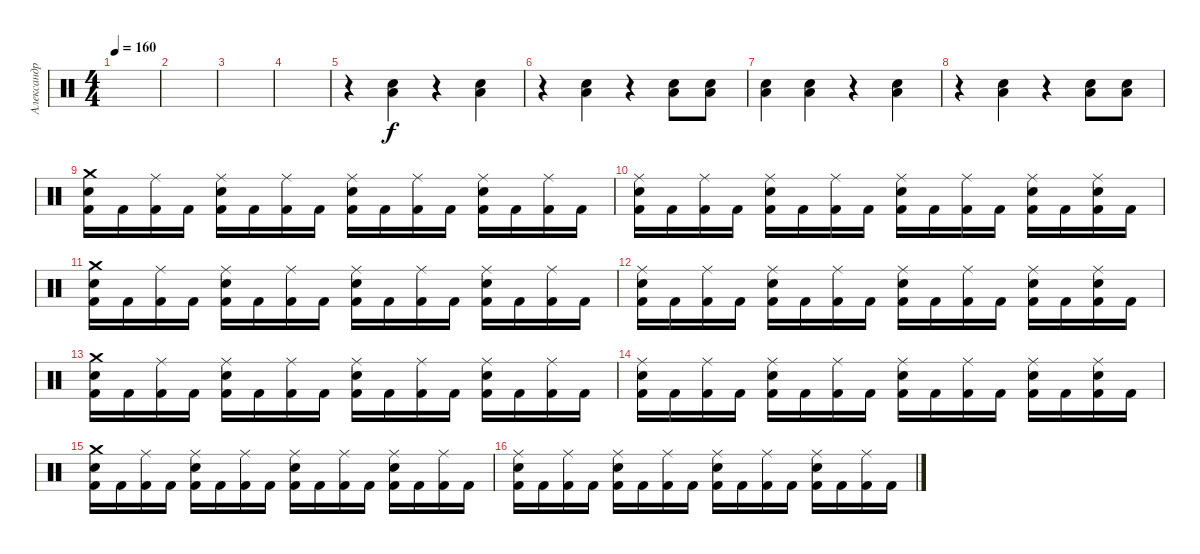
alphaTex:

\track ("Александр Карпухин" "Александр ") {instrument percussion}
\staff {score}
\articulation defaults
\ts (4 4)
\tempo 160
\clef neutral
\ks c
|
|
|
|
r.4 ("Low Floor Tom (hit)" "Electric Snare (hit)").4 r.4 ("Low Floor Tom (hit)" "Electric Snare (hit)").4 |
r.4 ("Low Floor Tom (hit)" "Electric Snare (hit)").4 r.4 ("Low Floor Tom (hit)" "Electric Snare (hit)").8 ("Low Floor Tom (hit)" "Electric Snare (hit)").8 |
("Low Floor Tom (hit)" "Electric Snare (hit)").4 ("Low Floor Tom (hit)" "Electric Snare (hit)").4 r.4 ("Low Floor Tom (hit)" "Electric Snare (hit)").4 |
r.4 ("Low Floor Tom (hit)" "Electric Snare (hit)").4 r.4 ("Low Floor Tom (hit)" "Electric Snare (hit)").8 ("Low Floor Tom (hit)" "Electric Snare (hit)").8 |
("Crash medium (hit)" "Electric Snare (hit)" "Kick (hit) 2").16 "Kick (hit) 2".16 ("Ride (middle)" "Kick (hit) 2").16 "Kick (hit) 2".16 ("Ride (middle)" "Electric Snare (hit)" "Kick (hit) 2").16 "Kick (hit) 2".16 ("Ride (middle)" "Kick (hit) 2").16 "Kick (hit) 2".16 ("Ride (middle)" "Electric Snare (hit)" "Kick (hit) 2").16 "Kick (hit) 2".16 ("Ride (middle)" "Kick (hit) 2").16 "Kick (hit) 2".16 ("Ride (middle)" "Electric Snare (hit)" "Kick (hit) 2").16 "Kick (hit) 2".16 ("Ride (middle)" "Kick (hit) 2").16 "Kick (hit) 2".16 |
("Ride (middle)" "Electric Snare (hit)" "Kick (hit) 2").16 "Kick (hit) 2".16 ("Ride (middle)" "Kick (hit) 2").16 "Kick (hit) 2".16 ("Ride (middle)" "Electric Snare (hit)" "Kick (hit) 2").16 "Kick (hit) 2".16 ("Ride (middle)" "Kick (hit) 2").16 "Kick (hit) 2".16 ("Ride (middle)" "Electric Snare (hit)" "Kick (hit) 2").16 "Kick (hit) 2".16 ("Ride (middle)" "Kick (hit) 2").16 "Kick (hit) 2".16 ("Ride (middle)" "Electric Snare (hit)" "Kick (hit) 2").16 "Kick (hit) 2".16 ("Ride (middle)" "Electric Snare (hit)" "Kick (hit) 2").16 "Kick (hit) 2".16 |
("Crash medium (hit)" "Electric Snare (hit)" "Kick (hit) 2").16 "Kick (hit) 2".16 ("Ride (middle)" "Kick (hit) 2").16 "Kick (hit) 2".16 ("Ride (middle)" "Electric Snare (hit)" "Kick (hit) 2").16 "Kick (hit) 2".16 ("Ride (middle)" "Kick (hit) 2").16 "Kick (hit) 2".16 ("Ride (middle)" "Electric Snare (hit)" "Kick (hit) 2").16 "Kick (hit) 2".16 ("Ride (middle)" "Kick (hit) 2").16 "Kick (hit) 2".16 ("Ride (middle)" "Electric Snare (hit)" "Kick (hit) 2").16 "Kick (hit) 2".16 ("Ride (middle)" "Kick (hit) 2").16 "Kick (hit) 2".16 |
("Ride (middle)" "Electric Snare (hit)" "Kick (hit) 2").16 "Kick (hit) 2".16 ("Ride (middle)" "Kick (hit) 2").16 "Kick (hit) 2".16 ("Ride (middle)" "Electric Snare (hit)" "Kick (hit) 2").16 "Kick (hit) 2".16 ("Ride (middle)" "Kick (hit) 2").16 "Kick (hit) 2".16 ("Ride (middle)" "Electric Snare (hit)" "Kick (hit) 2").16 "Kick (hit) 2".16 ("Ride (middle)" "Kick (hit) 2").16 "Kick (hit) 2".16 ("Ride (middle)" "Electric Snare (hit)" "Kick (hit) 2").16 "Kick (hit) 2".16 ("Ride (middle)" "Electric Snare (hit)" "Kick (hit) 2").16 "Kick (hit) 2".16 |
("Crash medium (hit)" "Electric Snare (hit)" "Kick (hit) 2").16 "Kick (hit) 2".16 ("Ride (middle)" "Kick (hit) 2").16 "Kick (hit) 2".16 ("Ride (middle)" "Electric Snare (hit)" "Kick (hit) 2").16 "Kick (hit) 2".16 ("Ride (middle)" "Kick (hit) 2").16 "Kick (hit) 2".16 ("Ride (middle)" "Electric Snare (hit)" "Kick (hit) 2").16 "Kick (hit) 2".16 ("Ride (middle)" "Kick (hit) 2").16 "Kick (hit) 2".16 ("Ride (middle)" "Electric Snare (hit)" "Kick (hit) 2").16 "Kick (hit) 2".16 ("Ride (middle)" "Kick (hit) 2").16 "Kick (hit) 2".16 |
("Ride (middle)" "Electric Snare (hit)" "Kick (hit) 2").16 "Kick (hit) 2".16 ("Ride (middle)" "Kick (hit) 2").16 "Kick (hit) 2".16 ("Ride (middle)" "Electric Snare (hit)" "Kick (hit) 2").16 "Kick (hit) 2".16 ("Ride (middle)" "Kick (hit) 2").16 "Kick (hit) 2".16 ("Ride (middle)" "Electric Snare (hit)" "Kick (hit) 2").16 "Kick (hit) 2".16 ("Ride (middle)" "Kick (hit) 2").16 "Kick (hit) 2".16 ("Ride (middle)" "Electric Snare (hit)" "Kick (hit) 2").16 "Kick (hit) 2".16 ("Ride (middle)" "Electric Snare (hit)" "Kick (hit) 2").16 "Kick (hit) 2".16 |
("Crash medium (hit)" "Electric Snare (hit)" "Kick (hit) 2").16 "Kick (hit) 2".16 ("Ride (middle)" "Kick (hit) 2").16 "Kick (hit) 2".16 ("Ride (middle)" "Electric Snare (hit)" "Kick (hit) 2").16 "Kick (hit) 2".16 ("Ride (middle)" "Kick (hit) 2").16 "Kick (hit) 2".16 ("Ride (middle)" "Electric Snare (hit)" "Kick (hit) 2").16 "Kick (hit) 2".16 ("Ride (middle)" "Kick (hit) 2").16 "Kick (hit) 2".16 ("Ride (middle)" "Electric Snare (hit)" "Kick (hit) 2").16 "Kick (hit) 2".16 ("Ride (middle)" "Kick (hit) 2").16 "Kick (hit) 2".16 |
("Ride (middle)" "Electric Snare (hit)" "Kick (hit) 2").16 "Kick (hit) 2".16 ("Ride (middle)" "Kick (hit) 2").16 "Kick (hit) 2".16 ("Ride (middle)" "Electric Snare (hit)" "Kick (hit) 2").16 "Kick (hit) 2".16 ("Ride (middle)" "Kick (hit) 2").16 "Kick (hit) 2".16 ("Ride (middle)" "Electric Snare (hit)" "Kick (hit) 2").16 "Kick (hit) 2".16 ("Ride (middle)" "Kick (hit) 2").16 "Kick (hit) 2".16 ("Ride (middle)" "Electric Snare (hit)" "Kick (hit) 2").16 "Kick (hit) 2".16 ("Ride (middle)" "Kick (hit) 2").16 "Kick (hit) 2".16
